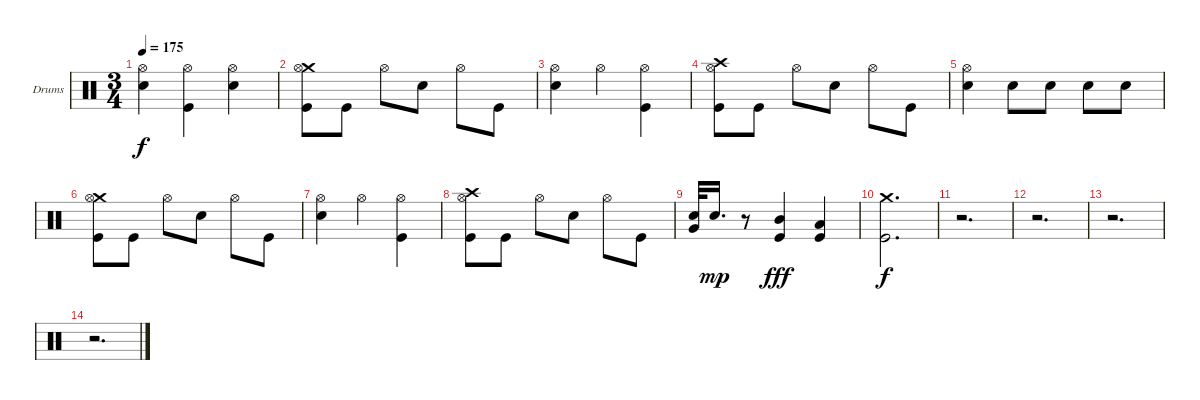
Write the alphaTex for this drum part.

\bracketExtendMode groupsimilarinstruments
\firstSystemTrackNameOrientation horizontal
\otherSystemsTrackNameOrientation horizontal
\track ("Drums" "Drums") {instrument percussion}
\staff {score}
\articulation defaults
\ts (3 4)
\tempo 175
\clef neutral
\ks c
("Hi-Hat (open)" "Snare (hit) 2").4{dy f} ("Hi-Hat (open)" "Kick (hit)").4 ("Hi-Hat (open)" "Snare (hit) 2").4 |
("Crash medium (hit)" "Hi-Hat (open)" "Kick (hit)").8 "Kick (hit)".8 "Hi-Hat (open)".8 "Snare (hit) 2".8 "Hi-Hat (open)".8 "Kick (hit)".8 |
("Hi-Hat (open)" "Snare (hit) 2").4 "Hi-Hat (open)".4 ("Hi-Hat (open)" "Kick (hit)").4 |
("Crash high (hit)" "Hi-Hat (open)" "Kick (hit)").8 "Kick (hit)".8 "Hi-Hat (open)".8 "Snare (hit) 2".8 "Hi-Hat (open)".8 "Kick (hit)".8 |
("Hi-Hat (open)" "Snare (hit) 2").4 "Snare (hit) 2".8 "Snare (hit) 2".8 "Snare (hit) 2".8 "Snare (hit) 2".8 |
("Crash medium (hit)" "Hi-Hat (open)" "Kick (hit)").8 "Kick (hit)".8 "Hi-Hat (open)".8 "Snare (hit) 2".8 "Hi-Hat (open)".8 "Kick (hit)".8 |
("Hi-Hat (open)" "Snare (hit) 2").4 "Hi-Hat (open)".4 ("Hi-Hat (open)" "Kick (hit)").4 |
("Crash high (hit)" "Hi-Hat (open)" "Kick (hit)").8 "Kick (hit)".8 "Hi-Hat (open)".8 "Snare (hit) 2".8 "Hi-Hat (open)".8 "Kick (hit)".8 |
("Very Low Tom (hit)" "Snare (hit) 2").32 "Snare (hit) 2".16{d dy mp} r.8 ("Mid Tom (hit)" "Kick (hit)").4{dy fff} ("Low Tom (hit)" "Kick (hit)").4 |
("Crash medium (hit)" "Kick (hit)").2{d dy f} |
r.2{d} |
r.2{d} |
r.2{d} |
r.2{d}
